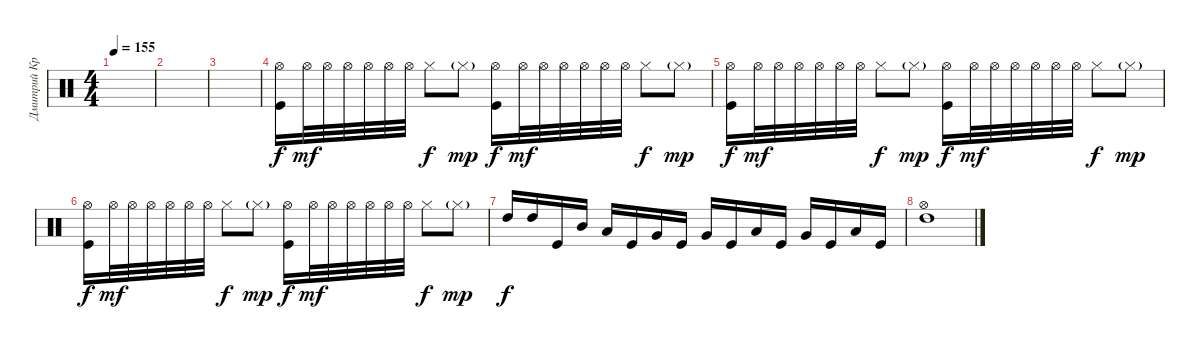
\track ("Дмитрий Кривенков" "Дмитрий Кр") {instrument percussion}
\staff {score}
\articulation defaults
\ts (4 4)
\tempo 155
\clef neutral
\ks c
|
|
|
("Hi-Hat (open)" "Kick (hit)").16 "Hi-Hat (open)".32{dy mf} "Hi-Hat (open)".32 "Hi-Hat (open)".32 "Hi-Hat (open)".32 "Hi-Hat (open)".32 "Hi-Hat (open)".32 "Hi-Hat (closed)".8{dy f} "Hi-Hat (closed)"{g}.8{dy mp} ("Hi-Hat (open)" "Kick (hit)").16{dy f} "Hi-Hat (open)".32{dy mf} "Hi-Hat (open)".32 "Hi-Hat (open)".32 "Hi-Hat (open)".32 "Hi-Hat (open)".32 "Hi-Hat (open)".32 "Hi-Hat (closed)".8{dy f} "Hi-Hat (closed)"{g}.8{dy mp} |
("Hi-Hat (open)" "Kick (hit)").16{dy f} "Hi-Hat (open)".32{dy mf} "Hi-Hat (open)".32 "Hi-Hat (open)".32 "Hi-Hat (open)".32 "Hi-Hat (open)".32 "Hi-Hat (open)".32 "Hi-Hat (closed)".8{dy f} "Hi-Hat (closed)"{g}.8{dy mp} ("Hi-Hat (open)" "Kick (hit)").16{dy f} "Hi-Hat (open)".32{dy mf} "Hi-Hat (open)".32 "Hi-Hat (open)".32 "Hi-Hat (open)".32 "Hi-Hat (open)".32 "Hi-Hat (open)".32 "Hi-Hat (closed)".8{dy f} "Hi-Hat (closed)"{g}.8{dy mp} |
("Hi-Hat (open)" "Kick (hit)").16{dy f} "Hi-Hat (open)".32{dy mf} "Hi-Hat (open)".32 "Hi-Hat (open)".32 "Hi-Hat (open)".32 "Hi-Hat (open)".32 "Hi-Hat (open)".32 "Hi-Hat (closed)".8{dy f} "Hi-Hat (closed)"{g}.8{dy mp} ("Hi-Hat (open)" "Kick (hit)").16{dy f} "Hi-Hat (open)".32{dy mf} "Hi-Hat (open)".32 "Hi-Hat (open)".32 "Hi-Hat (open)".32 "Hi-Hat (open)".32 "Hi-Hat (open)".32 "Hi-Hat (closed)".8{dy f} "Hi-Hat (closed)"{g}.8{dy mp} |
"High Tom (hit)".16{dy f} "High Tom (hit)".16 "Kick (hit)".16 "Mid Tom (hit)".16 "Low Tom (hit)".16 "Kick (hit)".16 "Very Low Tom (hit)".16 "Kick (hit)".16 "Very Low Tom (hit)".16 "Kick (hit)".16 "Low Tom (hit)".16 "Kick (hit)".16 "Very Low Tom (hit)".16 "Kick (hit)".16 "Low Floor Tom (hit)".16 "Kick (hit)".16 |
("Hi-Hat (open)" "High Tom (hit)").1
